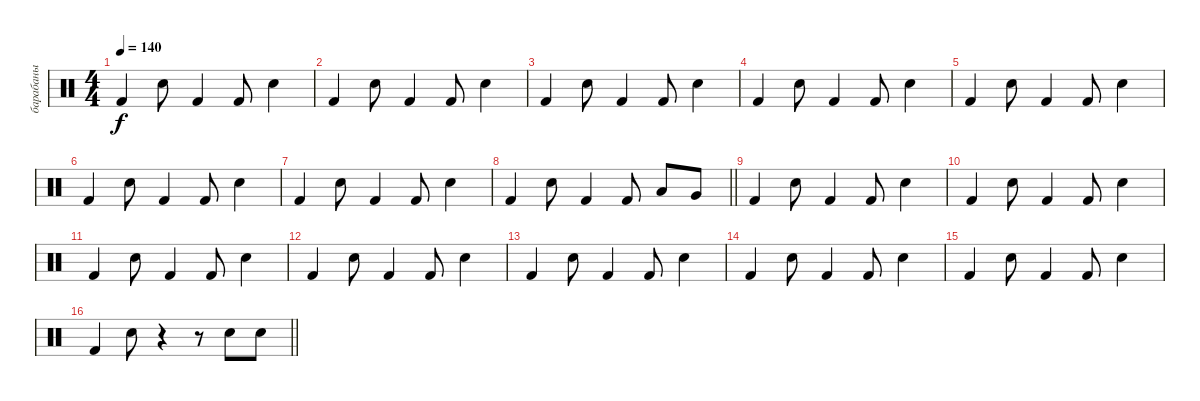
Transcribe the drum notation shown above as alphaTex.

\track ("барабаны" "барабаны") {instrument percussion}
\staff {score}
\articulation defaults
\ts (4 4)
\tempo 140
\clef neutral
\ks c "Kick (hit) 2".4{dy f} "Electric Snare (hit)".8 "Kick (hit) 2".4 "Kick (hit) 2".8 "Electric Snare (hit)".4
|
"Kick (hit) 2".4 "Electric Snare (hit)".8 "Kick (hit) 2".4 "Kick (hit) 2".8 "Electric Snare (hit)".4 |
"Kick (hit) 2".4 "Electric Snare (hit)".8 "Kick (hit) 2".4 "Kick (hit) 2".8 "Electric Snare (hit)".4 |
"Kick (hit) 2".4 "Electric Snare (hit)".8 "Kick (hit) 2".4 "Kick (hit) 2".8 "Electric Snare (hit)".4 |
"Kick (hit) 2".4 "Electric Snare (hit)".8 "Kick (hit) 2".4 "Kick (hit) 2".8 "Electric Snare (hit)".4 |
"Kick (hit) 2".4 "Electric Snare (hit)".8 "Kick (hit) 2".4 "Kick (hit) 2".8 "Electric Snare (hit)".4 |
"Kick (hit) 2".4 "Electric Snare (hit)".8 "Kick (hit) 2".4 "Kick (hit) 2".8 "Electric Snare (hit)".4 |
\barLineRight lightlight "Kick (hit) 2".4 "Electric Snare (hit)".8 "Kick (hit) 2".4 "Kick (hit) 2".8 "Low Tom (hit)".8 "Very Low Tom (hit)".8
|
"Kick (hit) 2".4 "Electric Snare (hit)".8 "Kick (hit) 2".4 "Kick (hit) 2".8 "Electric Snare (hit)".4 |
"Kick (hit) 2".4 "Electric Snare (hit)".8 "Kick (hit) 2".4 "Kick (hit) 2".8 "Electric Snare (hit)".4 |
"Kick (hit) 2".4 "Electric Snare (hit)".8 "Kick (hit) 2".4 "Kick (hit) 2".8 "Electric Snare (hit)".4 |
"Kick (hit) 2".4 "Electric Snare (hit)".8 "Kick (hit) 2".4 "Kick (hit) 2".8 "Electric Snare (hit)".4 |
"Kick (hit) 2".4 "Electric Snare (hit)".8 "Kick (hit) 2".4 "Kick (hit) 2".8 "Electric Snare (hit)".4 |
"Kick (hit) 2".4 "Electric Snare (hit)".8 "Kick (hit) 2".4 "Kick (hit) 2".8 "Electric Snare (hit)".4 |
"Kick (hit) 2".4 "Electric Snare (hit)".8 "Kick (hit) 2".4 "Kick (hit) 2".8 "Electric Snare (hit)".4 |
\barLineRight lightlight "Kick (hit) 2".4 "Electric Snare (hit)".8
r.4 r.8 "Electric Snare (hit)".8 "Electric Snare (hit)".8
